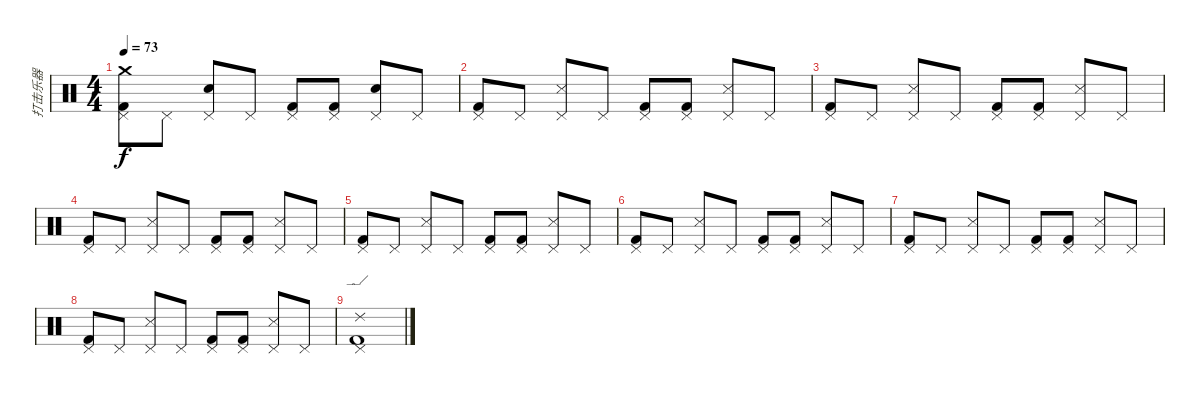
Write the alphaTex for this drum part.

\track ("打击乐器" "打击乐器") {instrument percussion}
\staff {score}
\articulation defaults
\ts (4 4)
\tempo 73
\clef neutral
\ks c
("Crash medium (hit)" "Kick (hit) 2" "Pedal Hi-Hat (hit)").8{dy f} "Pedal Hi-Hat (hit)".8 ("Electric Snare (hit)" "Pedal Hi-Hat (hit)").8 "Pedal Hi-Hat (hit)".8 ("Kick (hit) 2" "Pedal Hi-Hat (hit)").8 ("Kick (hit) 2" "Pedal Hi-Hat (hit)").8 ("Electric Snare (hit)" "Pedal Hi-Hat (hit)").8 "Pedal Hi-Hat (hit)".8 |
("Kick (hit) 2" "Pedal Hi-Hat (hit)").8 "Pedal Hi-Hat (hit)".8 ("Snare (side stick) 3" "Pedal Hi-Hat (hit)").8 "Pedal Hi-Hat (hit)".8 ("Kick (hit) 2" "Pedal Hi-Hat (hit)").8 ("Kick (hit) 2" "Pedal Hi-Hat (hit)").8 ("Snare (side stick) 3" "Pedal Hi-Hat (hit)").8 "Pedal Hi-Hat (hit)".8 |
("Kick (hit) 2" "Pedal Hi-Hat (hit)").8 "Pedal Hi-Hat (hit)".8 ("Snare (side stick) 3" "Pedal Hi-Hat (hit)").8 "Pedal Hi-Hat (hit)".8 ("Kick (hit) 2" "Pedal Hi-Hat (hit)").8 ("Kick (hit) 2" "Pedal Hi-Hat (hit)").8 ("Snare (side stick) 3" "Pedal Hi-Hat (hit)").8 "Pedal Hi-Hat (hit)".8 |
("Kick (hit) 2" "Pedal Hi-Hat (hit)").8 "Pedal Hi-Hat (hit)".8 ("Snare (side stick) 3" "Pedal Hi-Hat (hit)").8 "Pedal Hi-Hat (hit)".8 ("Kick (hit) 2" "Pedal Hi-Hat (hit)").8 ("Kick (hit) 2" "Pedal Hi-Hat (hit)").8 ("Snare (side stick) 3" "Pedal Hi-Hat (hit)").8 "Pedal Hi-Hat (hit)".8 |
("Kick (hit) 2" "Pedal Hi-Hat (hit)").8 "Pedal Hi-Hat (hit)".8 ("Snare (side stick) 3" "Pedal Hi-Hat (hit)").8 "Pedal Hi-Hat (hit)".8 ("Kick (hit) 2" "Pedal Hi-Hat (hit)").8 ("Kick (hit) 2" "Pedal Hi-Hat (hit)").8 ("Snare (side stick) 3" "Pedal Hi-Hat (hit)").8 "Pedal Hi-Hat (hit)".8 |
("Kick (hit) 2" "Pedal Hi-Hat (hit)").8 "Pedal Hi-Hat (hit)".8 ("Snare (side stick) 3" "Pedal Hi-Hat (hit)").8 "Pedal Hi-Hat (hit)".8 ("Kick (hit) 2" "Pedal Hi-Hat (hit)").8 ("Kick (hit) 2" "Pedal Hi-Hat (hit)").8 ("Snare (side stick) 3" "Pedal Hi-Hat (hit)").8 "Pedal Hi-Hat (hit)".8 |
("Kick (hit) 2" "Pedal Hi-Hat (hit)").8 "Pedal Hi-Hat (hit)".8 ("Snare (side stick) 3" "Pedal Hi-Hat (hit)").8 "Pedal Hi-Hat (hit)".8 ("Kick (hit) 2" "Pedal Hi-Hat (hit)").8 ("Kick (hit) 2" "Pedal Hi-Hat (hit)").8 ("Snare (side stick) 3" "Pedal Hi-Hat (hit)").8 "Pedal Hi-Hat (hit)".8 |
("Kick (hit) 2" "Pedal Hi-Hat (hit)").8 "Pedal Hi-Hat (hit)".8 ("Snare (side stick) 3" "Pedal Hi-Hat (hit)").8 "Pedal Hi-Hat (hit)".8 ("Kick (hit) 2" "Pedal Hi-Hat (hit)").8 ("Kick (hit) 2" "Pedal Hi-Hat (hit)").8 ("Snare (side stick) 3" "Pedal Hi-Hat (hit)").8 "Pedal Hi-Hat (hit)".8 |
("Ride (edge) 2" "Kick (hit) 2" "Pedal Hi-Hat (hit)").1
